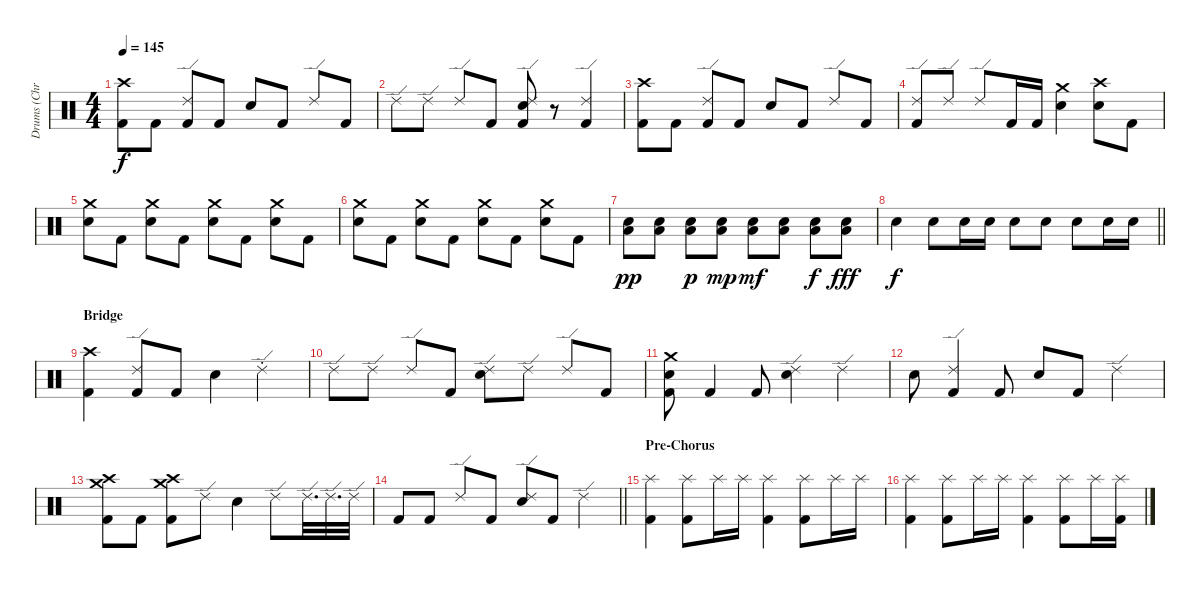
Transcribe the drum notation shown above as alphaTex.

\track ("Drums (Chris)" "Drums (Chr") {instrument percussion}
\staff {score}
\articulation defaults
\ts (4 4)
\tempo 145
\clef neutral
\ks c
("Crash high (hit)" "Kick (hit) 2").8{dy f} "Kick (hit) 2".8 ("Ride (edge) 2" "Kick (hit) 2").8 "Kick (hit) 2".8 "Electric Snare (hit)".8 "Kick (hit) 2".8 "Ride (edge) 2".8 "Kick (hit) 2".8 |
"Ride (edge) 2".8 "Ride (edge) 2".8 "Ride (edge) 2".8 "Kick (hit) 2".8 ("Ride (edge) 2" "Electric Snare (hit)" "Kick (hit) 2").8 r.8 ("Ride (edge) 2" "Kick (hit) 2").4 |
("Crash high (hit)" "Kick (hit) 2").8 "Kick (hit) 2".8 ("Ride (edge) 2" "Kick (hit) 2").8 "Kick (hit) 2".8 "Electric Snare (hit)".8 "Kick (hit) 2".8 "Ride (edge) 2".8 "Kick (hit) 2".8 |
("Ride (edge) 2" "Kick (hit) 2").8 "Ride (edge) 2".8 "Ride (edge) 2".8 "Kick (hit) 2".16 "Kick (hit) 2".16 ("Crash medium (hit)" "Electric Snare (hit)").4 ("Crash high (hit)" "Electric Snare (hit)").8 "Kick (hit) 2".8 |
("Crash medium (hit)" "Electric Snare (hit)").8 "Kick (hit) 2".8 ("Crash medium (hit)" "Electric Snare (hit)").8 "Kick (hit) 2".8 ("Crash medium (hit)" "Electric Snare (hit)").8 "Kick (hit) 2".8 ("Crash medium (hit)" "Electric Snare (hit)").8 "Kick (hit) 2".8 |
("Crash medium (hit)" "Electric Snare (hit)").8 "Kick (hit) 2".8 ("Crash medium (hit)" "Electric Snare (hit)").8 "Kick (hit) 2".8 ("Crash medium (hit)" "Electric Snare (hit)").8 "Kick (hit) 2".8 ("Crash medium (hit)" "Electric Snare (hit)").8 "Kick (hit) 2".8 |
("Low Floor Tom (hit)" "Electric Snare (hit)").8{dy pp} ("Low Floor Tom (hit)" "Electric Snare (hit)").8 ("Low Floor Tom (hit)" "Electric Snare (hit)").8{dy p} ("Low Floor Tom (hit)" "Electric Snare (hit)").8{dy mp} ("Low Floor Tom (hit)" "Electric Snare (hit)").8{dy mf} ("Low Floor Tom (hit)" "Electric Snare (hit)").8 ("Low Floor Tom (hit)" "Electric Snare (hit)").8{dy f} ("Low Floor Tom (hit)" "Electric Snare (hit)").8{dy fff} |
\barLineRight lightlight "Electric Snare (hit)".4{dy f} "Electric Snare (hit)".8 "Electric Snare (hit)".16 "Electric Snare (hit)".16 "Electric Snare (hit)".8 "Electric Snare (hit)".8 "Electric Snare (hit)".8 "Electric Snare (hit)".16 "Electric Snare (hit)".16
|
\section ("" "Bridge")
("Crash high (hit)" "Kick (hit) 2").4 ("Ride (edge) 2" "Kick (hit) 2").8 "Kick (hit) 2".8 "Electric Snare (hit)".4 "Ride (edge) 2"{st}.4 |
"Ride (edge) 2".8 "Ride (edge) 2".8 "Ride (edge) 2".8 "Kick (hit) 2".8 ("Ride (edge) 2" "Electric Snare (hit)").8 "Ride (edge) 2".8 "Ride (edge) 2".8 "Kick (hit) 2".8 |
("Crash medium (hit)" "Electric Snare (hit)" "Kick (hit) 2").8 "Kick (hit) 2".4 "Kick (hit) 2".8 ("Ride (edge) 2" "Electric Snare (hit)").4 "Ride (edge) 2".4 |
"Electric Snare (hit)".8 ("Ride (edge) 2" "Kick (hit) 2").4 "Kick (hit) 2".8 "Electric Snare (hit)".8 "Kick (hit) 2".8 "Ride (edge) 2".4 |
("Crash medium (hit)" "Crash high (hit)" "Kick (hit) 2").8 "Kick (hit) 2".8 ("Crash medium (hit)" "Crash high (hit)" "Kick (hit) 2").8 "Ride (edge) 2".8 "Electric Snare (hit)".4 "Ride (edge) 2".8 "Ride (edge) 2".32{d} "Ride (edge) 2".32{d} "Ride (edge) 2".32 |
\barLineRight lightlight "Kick (hit) 2".8 "Kick (hit) 2".8 "Ride (edge) 2".8 "Kick (hit) 2".8
("Ride (edge) 2" "Electric Snare (hit)").8 "Kick (hit) 2".8 "Ride (edge) 2".4 |
\section ("" "Pre-Chorus")
("Splash (hit)" "Kick (hit) 2").4 ("Splash (hit)" "Kick (hit) 2").8 "Splash (hit)".16 "Splash (hit)".16 ("Splash (hit)" "Kick (hit) 2").4 ("Splash (hit)" "Kick (hit) 2").8 "Splash (hit)".16 "Splash (hit)".16 |
("Splash (hit)" "Kick (hit) 2").4 ("Splash (hit)" "Kick (hit) 2").8 "Splash (hit)".16 "Splash (hit)".16 ("Splash (hit)" "Kick (hit) 2").4 ("Splash (hit)" "Kick (hit) 2").8 "Splash (hit)".16 ("Splash (hit)" "Kick (hit) 2").16
